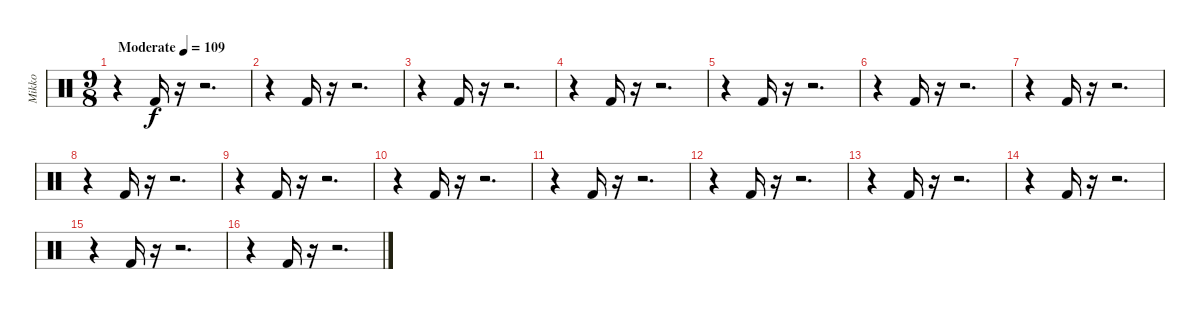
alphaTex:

\track ("Mikko" "Mikko") {instrument percussion}
\staff {score}
\articulation defaults
\ts (9 8)
\tempo (109 "Moderate")
\clef neutral
\ks c
r.4{dy f} "Kick (hit) 2".16 r.16 r.2{d} |
r.4 "Kick (hit) 2".16 r.16 r.2{d} |
r.4 "Kick (hit) 2".16 r.16 r.2{d} |
r.4 "Kick (hit) 2".16 r.16 r.2{d} |
r.4 "Kick (hit) 2".16 r.16 r.2{d} |
r.4 "Kick (hit) 2".16 r.16 r.2{d} |
r.4 "Kick (hit) 2".16 r.16 r.2{d} |
r.4 "Kick (hit) 2".16 r.16 r.2{d} |
r.4 "Kick (hit) 2".16 r.16 r.2{d} |
r.4 "Kick (hit) 2".16 r.16 r.2{d} |
r.4 "Kick (hit) 2".16 r.16 r.2{d} |
r.4 "Kick (hit) 2".16 r.16 r.2{d} |
r.4 "Kick (hit) 2".16 r.16 r.2{d} |
r.4 "Kick (hit) 2".16 r.16 r.2{d} |
r.4 "Kick (hit) 2".16 r.16 r.2{d} |
r.4 "Kick (hit) 2".16 r.16 r.2{d}
